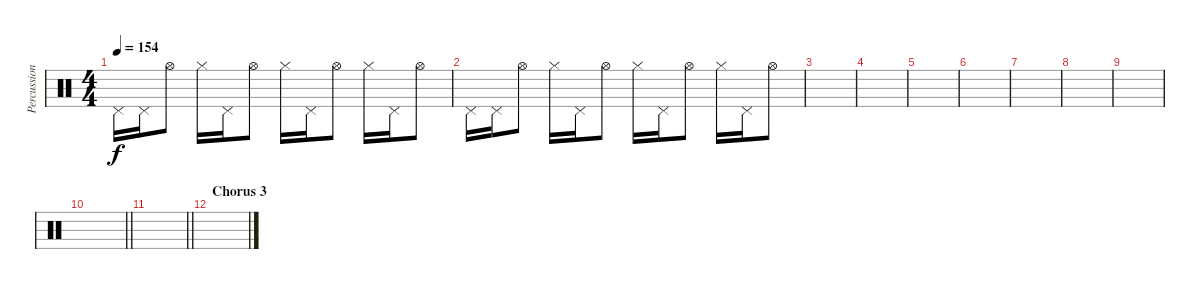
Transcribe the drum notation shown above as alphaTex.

\track ("Percussion" "Percussion") {instrument percussion}
\staff {score}
\articulation defaults
\ts (4 4)
\tempo 154
\clef neutral
\ks c "Pedal Hi-Hat (hit)".16{dy f} "Pedal Hi-Hat (hit)".16 "Hi-Hat (open)".8 "Hi-Hat (closed)".16 "Pedal Hi-Hat (hit)".16 "Hi-Hat (open)".8 "Hi-Hat (closed)".16 "Pedal Hi-Hat (hit)".16 "Hi-Hat (open)".8 "Hi-Hat (closed)".16 "Pedal Hi-Hat (hit)".16 "Hi-Hat (open)".8
|
"Pedal Hi-Hat (hit)".16 "Pedal Hi-Hat (hit)".16 "Hi-Hat (open)".8 "Hi-Hat (closed)".16 "Pedal Hi-Hat (hit)".16 "Hi-Hat (open)".8 "Hi-Hat (closed)".16 "Pedal Hi-Hat (hit)".16 "Hi-Hat (open)".8 "Hi-Hat (closed)".16 "Pedal Hi-Hat (hit)".16 "Hi-Hat (open)".8 |
|
|
|
|
|
|
|
\barLineRight lightlight
|
\barLineRight lightlight
|
\section ("" "Chorus 3")
